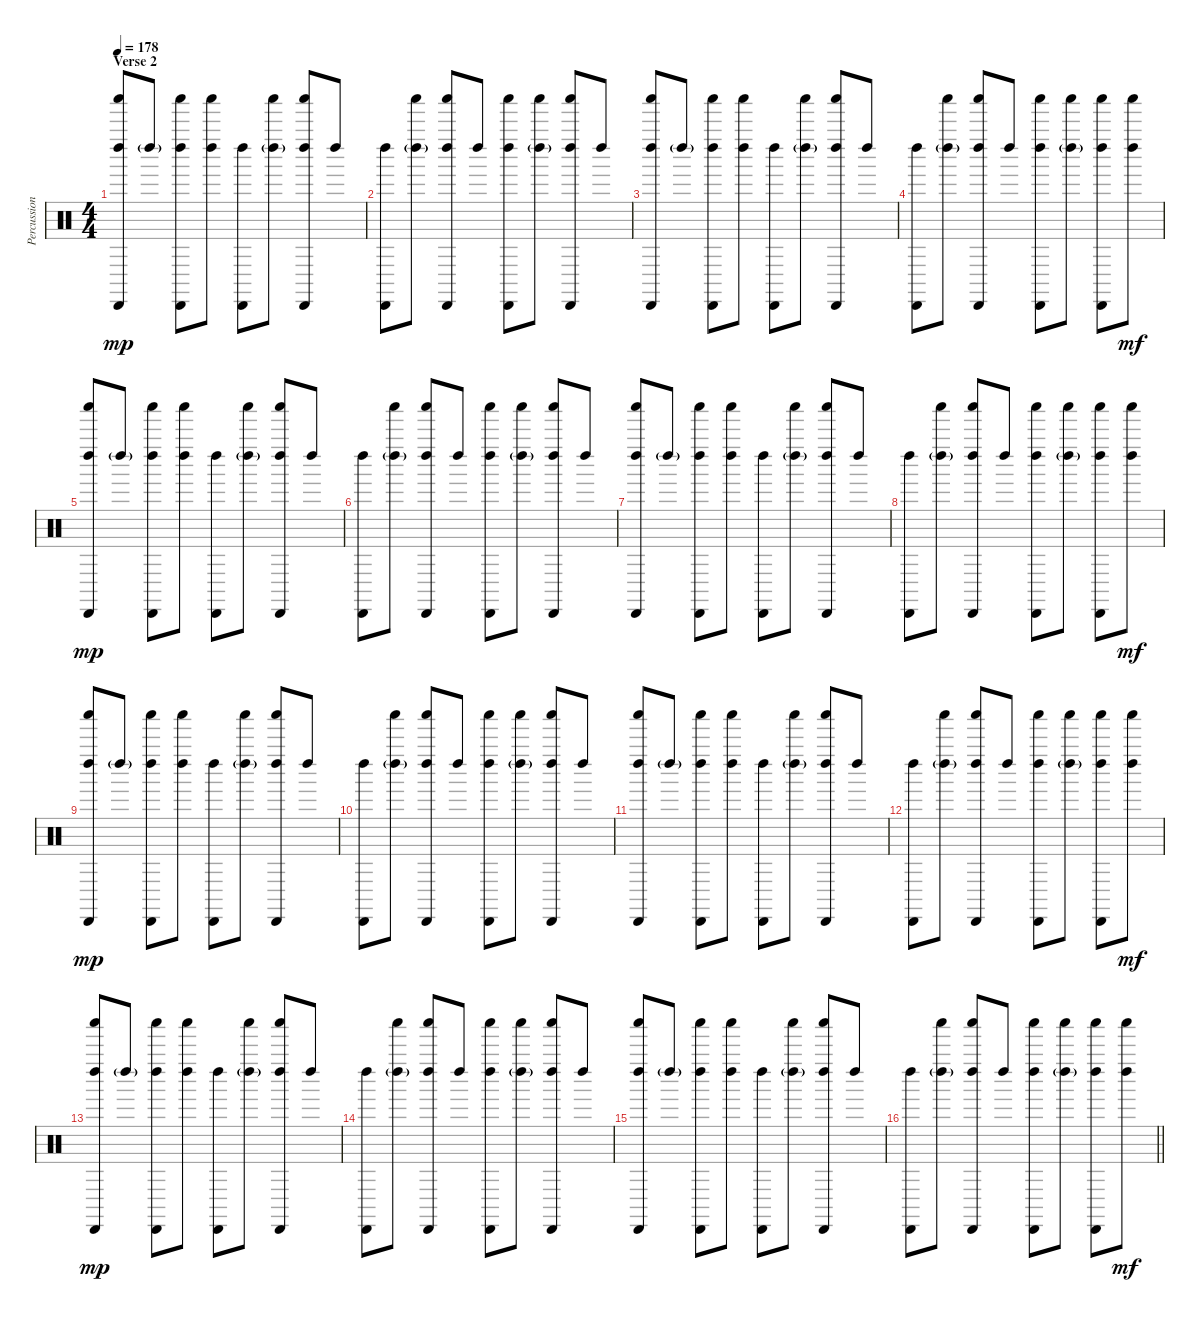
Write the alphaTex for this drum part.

\track ("Percussion" "Percussion") {instrument percussion}
\staff {score}
\articulation defaults
\ts (4 4)
\section ("" "Verse 2")
\tempo 178
\clef neutral
\ks c
("Left Maraca (hit)" "Shaker (hit)" "Cabasa (hit)").8{dy mp} "Left Maraca (hit)"{g}.8 ("Left Maraca (hit)" "Shaker (hit)" "Cabasa (hit)").8 ("Left Maraca (hit)" "Shaker (hit)").8 ("Left Maraca (hit)" "Cabasa (hit)").8 ("Left Maraca (hit)"{g} "Shaker (hit)").8 ("Left Maraca (hit)" "Shaker (hit)" "Cabasa (hit)").8 "Left Maraca (hit)".8 |
("Left Maraca (hit)" "Cabasa (hit)").8 ("Left Maraca (hit)"{g} "Shaker (hit)").8 ("Left Maraca (hit)" "Shaker (hit)" "Cabasa (hit)").8 "Left Maraca (hit)".8 ("Left Maraca (hit)" "Shaker (hit)" "Cabasa (hit)").8 ("Left Maraca (hit)"{g} "Shaker (hit)").8 ("Left Maraca (hit)" "Shaker (hit)" "Cabasa (hit)").8 "Left Maraca (hit)".8 |
("Left Maraca (hit)" "Shaker (hit)" "Cabasa (hit)").8 "Left Maraca (hit)"{g}.8 ("Left Maraca (hit)" "Shaker (hit)" "Cabasa (hit)").8 ("Left Maraca (hit)" "Shaker (hit)").8 ("Left Maraca (hit)" "Cabasa (hit)").8 ("Left Maraca (hit)"{g} "Shaker (hit)").8 ("Left Maraca (hit)" "Shaker (hit)" "Cabasa (hit)").8 "Left Maraca (hit)".8 |
("Left Maraca (hit)" "Cabasa (hit)").8 ("Left Maraca (hit)"{g} "Shaker (hit)").8 ("Left Maraca (hit)" "Shaker (hit)" "Cabasa (hit)").8 "Left Maraca (hit)".8 ("Left Maraca (hit)" "Shaker (hit)" "Cabasa (hit)").8 ("Left Maraca (hit)"{g} "Shaker (hit)").8 ("Left Maraca (hit)" "Shaker (hit)" "Cabasa (hit)").8 ("Left Maraca (hit)" "Shaker (hit)").8{dy mf} |
("Left Maraca (hit)" "Shaker (hit)" "Cabasa (hit)").8{dy mp} "Left Maraca (hit)"{g}.8 ("Left Maraca (hit)" "Shaker (hit)" "Cabasa (hit)").8 ("Left Maraca (hit)" "Shaker (hit)").8 ("Left Maraca (hit)" "Cabasa (hit)").8 ("Left Maraca (hit)"{g} "Shaker (hit)").8 ("Left Maraca (hit)" "Shaker (hit)" "Cabasa (hit)").8 "Left Maraca (hit)".8 |
("Left Maraca (hit)" "Cabasa (hit)").8 ("Left Maraca (hit)"{g} "Shaker (hit)").8 ("Left Maraca (hit)" "Shaker (hit)" "Cabasa (hit)").8 "Left Maraca (hit)".8 ("Left Maraca (hit)" "Shaker (hit)" "Cabasa (hit)").8 ("Left Maraca (hit)"{g} "Shaker (hit)").8 ("Left Maraca (hit)" "Shaker (hit)" "Cabasa (hit)").8 "Left Maraca (hit)".8 |
("Left Maraca (hit)" "Shaker (hit)" "Cabasa (hit)").8 "Left Maraca (hit)"{g}.8 ("Left Maraca (hit)" "Shaker (hit)" "Cabasa (hit)").8 ("Left Maraca (hit)" "Shaker (hit)").8 ("Left Maraca (hit)" "Cabasa (hit)").8 ("Left Maraca (hit)"{g} "Shaker (hit)").8 ("Left Maraca (hit)" "Shaker (hit)" "Cabasa (hit)").8 "Left Maraca (hit)".8 |
("Left Maraca (hit)" "Cabasa (hit)").8 ("Left Maraca (hit)"{g} "Shaker (hit)").8 ("Left Maraca (hit)" "Shaker (hit)" "Cabasa (hit)").8 "Left Maraca (hit)".8 ("Left Maraca (hit)" "Shaker (hit)" "Cabasa (hit)").8 ("Left Maraca (hit)"{g} "Shaker (hit)").8 ("Left Maraca (hit)" "Shaker (hit)" "Cabasa (hit)").8 ("Left Maraca (hit)" "Shaker (hit)").8{dy mf} |
("Left Maraca (hit)" "Shaker (hit)" "Cabasa (hit)").8{dy mp} "Left Maraca (hit)"{g}.8 ("Left Maraca (hit)" "Shaker (hit)" "Cabasa (hit)").8 ("Left Maraca (hit)" "Shaker (hit)").8 ("Left Maraca (hit)" "Cabasa (hit)").8 ("Left Maraca (hit)"{g} "Shaker (hit)").8 ("Left Maraca (hit)" "Shaker (hit)" "Cabasa (hit)").8 "Left Maraca (hit)".8 |
("Left Maraca (hit)" "Cabasa (hit)").8 ("Left Maraca (hit)"{g} "Shaker (hit)").8 ("Left Maraca (hit)" "Shaker (hit)" "Cabasa (hit)").8 "Left Maraca (hit)".8 ("Left Maraca (hit)" "Shaker (hit)" "Cabasa (hit)").8 ("Left Maraca (hit)"{g} "Shaker (hit)").8 ("Left Maraca (hit)" "Shaker (hit)" "Cabasa (hit)").8 "Left Maraca (hit)".8 |
("Left Maraca (hit)" "Shaker (hit)" "Cabasa (hit)").8 "Left Maraca (hit)"{g}.8 ("Left Maraca (hit)" "Shaker (hit)" "Cabasa (hit)").8 ("Left Maraca (hit)" "Shaker (hit)").8 ("Left Maraca (hit)" "Cabasa (hit)").8 ("Left Maraca (hit)"{g} "Shaker (hit)").8 ("Left Maraca (hit)" "Shaker (hit)" "Cabasa (hit)").8 "Left Maraca (hit)".8 |
("Left Maraca (hit)" "Cabasa (hit)").8 ("Left Maraca (hit)"{g} "Shaker (hit)").8 ("Left Maraca (hit)" "Shaker (hit)" "Cabasa (hit)").8 "Left Maraca (hit)".8 ("Left Maraca (hit)" "Shaker (hit)" "Cabasa (hit)").8 ("Left Maraca (hit)"{g} "Shaker (hit)").8 ("Left Maraca (hit)" "Shaker (hit)" "Cabasa (hit)").8 ("Left Maraca (hit)" "Shaker (hit)").8{dy mf} |
("Left Maraca (hit)" "Shaker (hit)" "Cabasa (hit)").8{dy mp} "Left Maraca (hit)"{g}.8 ("Left Maraca (hit)" "Shaker (hit)" "Cabasa (hit)").8 ("Left Maraca (hit)" "Shaker (hit)").8 ("Left Maraca (hit)" "Cabasa (hit)").8 ("Left Maraca (hit)"{g} "Shaker (hit)").8 ("Left Maraca (hit)" "Shaker (hit)" "Cabasa (hit)").8 "Left Maraca (hit)".8 |
("Left Maraca (hit)" "Cabasa (hit)").8 ("Left Maraca (hit)"{g} "Shaker (hit)").8 ("Left Maraca (hit)" "Shaker (hit)" "Cabasa (hit)").8 "Left Maraca (hit)".8 ("Left Maraca (hit)" "Shaker (hit)" "Cabasa (hit)").8 ("Left Maraca (hit)"{g} "Shaker (hit)").8 ("Left Maraca (hit)" "Shaker (hit)" "Cabasa (hit)").8 "Left Maraca (hit)".8 |
("Left Maraca (hit)" "Shaker (hit)" "Cabasa (hit)").8 "Left Maraca (hit)"{g}.8 ("Left Maraca (hit)" "Shaker (hit)" "Cabasa (hit)").8 ("Left Maraca (hit)" "Shaker (hit)").8 ("Left Maraca (hit)" "Cabasa (hit)").8 ("Left Maraca (hit)"{g} "Shaker (hit)").8 ("Left Maraca (hit)" "Shaker (hit)" "Cabasa (hit)").8 "Left Maraca (hit)".8 |
\barLineRight lightlight
("Left Maraca (hit)" "Cabasa (hit)").8 ("Left Maraca (hit)"{g} "Shaker (hit)").8 ("Left Maraca (hit)" "Shaker (hit)" "Cabasa (hit)").8 "Left Maraca (hit)".8 ("Left Maraca (hit)" "Shaker (hit)" "Cabasa (hit)").8 ("Left Maraca (hit)"{g} "Shaker (hit)").8 ("Left Maraca (hit)" "Shaker (hit)" "Cabasa (hit)").8 ("Left Maraca (hit)" "Shaker (hit)").8{dy mf}
